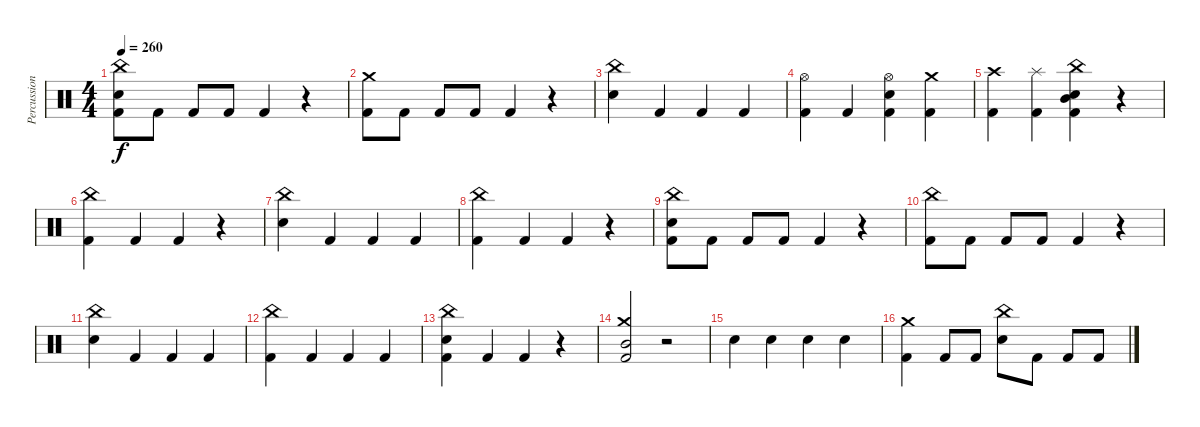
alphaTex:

\track ("Percussion" "Percussion") {instrument percussion}
\staff {score}
\articulation defaults
\ts (4 4)
\tempo 260
\clef neutral
\ks c
("China (hit)" "Electric Snare (hit)" "Kick (hit) 2").8{dy f} "Kick (hit) 2".8 "Kick (hit) 2".8 "Kick (hit) 2".8 "Kick (hit) 2".4 r.4 |
("Crash medium (hit)" "Kick (hit) 2").8 "Kick (hit) 2".8 "Kick (hit) 2".8 "Kick (hit) 2".8 "Kick (hit) 2".4 r.4 |
("China (hit)" "Electric Snare (hit)").4 "Kick (hit) 2".4 "Kick (hit) 2".4 "Kick (hit) 2".4 |
("Hi-Hat (open)" "Kick (hit) 2").4 "Kick (hit) 2".4 ("Hi-Hat (open)" "Electric Snare (hit)" "Kick (hit) 2").4 ("Crash medium (hit)" "Kick (hit) 2").4 |
("Crash high (hit)" "Kick (hit) 2").4 ("Splash (hit)" "Kick (hit) 2").4 ("China (hit)" "Electric Snare (hit)" "Mid Tom (hit)" "Kick (hit) 2").4 r.4 |
("China (hit)" "Kick (hit) 2").4 "Kick (hit) 2".4 "Kick (hit) 2".4 r.4 |
("China (hit)" "Electric Snare (hit)").4 "Kick (hit) 2".4 "Kick (hit) 2".4 "Kick (hit) 2".4 |
("China (hit)" "Kick (hit) 2").4 "Kick (hit) 2".4 "Kick (hit) 2".4 r.4 |
("China (hit)" "Electric Snare (hit)" "Kick (hit) 2").8 "Kick (hit) 2".8 "Kick (hit) 2".8 "Kick (hit) 2".8 "Kick (hit) 2".4 r.4 |
("China (hit)" "Kick (hit) 2").8 "Kick (hit) 2".8 "Kick (hit) 2".8 "Kick (hit) 2".8 "Kick (hit) 2".4 r.4 |
("China (hit)" "Electric Snare (hit)").4 "Kick (hit) 2".4 "Kick (hit) 2".4 "Kick (hit) 2".4 |
("China (hit)" "Kick (hit) 2").4 "Kick (hit) 2".4 "Kick (hit) 2".4 "Kick (hit) 2".4 |
("China (hit)" "Electric Snare (hit)" "Kick (hit) 2").4 "Kick (hit) 2".4 "Kick (hit) 2".4 r.4 |
("Crash medium (hit)" "Mid Tom (hit)" "Kick (hit) 2").2 r.2 |
"Electric Snare (hit)".4 "Electric Snare (hit)".4 "Electric Snare (hit)".4 "Electric Snare (hit)".4 |
("Crash medium (hit)" "Kick (hit) 2").4 "Kick (hit) 2".8 "Kick (hit) 2".8 ("China (hit)" "Electric Snare (hit)").8 "Kick (hit) 2".8 "Kick (hit) 2".8 "Kick (hit) 2".8
